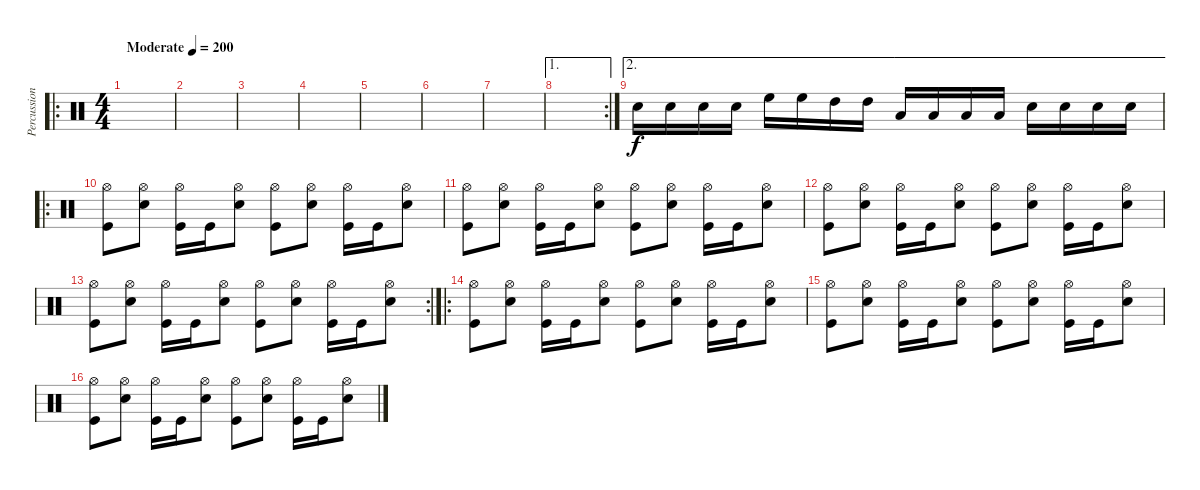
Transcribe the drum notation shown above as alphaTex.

\track ("Percussion" "Percussion") {instrument percussion}
\staff {score}
\articulation defaults
\ro
\ts (4 4)
\tempo (200 "Moderate")
\clef neutral
\ks c
|
|
|
|
|
|
|
\ae 1
\rc 2
|
\ae 2 "Snare (hit) 2".16 "Snare (hit) 2".16 "Snare (hit) 2".16 "Snare (hit) 2".16 "High Floor Tom (hit)".16 "High Floor Tom (hit)".16 "High Tom (hit)".16 "High Tom (hit)".16 "Low Tom (hit)".16 "Low Tom (hit)".16 "Low Floor Tom (hit)".16 "Low Floor Tom (hit)".16 "Snare (hit) 2".16 "Snare (hit) 2".16 "Snare (hit) 2".16 "Snare (hit) 2".16
|
\ro
("Hi-Hat (open)" "Kick (hit)").8 ("Hi-Hat (open)" "Snare (hit) 2").8 ("Hi-Hat (open)" "Kick (hit)").16 "Kick (hit)".16 ("Hi-Hat (open)" "Snare (hit) 2").8 ("Hi-Hat (open)" "Kick (hit)").8 ("Hi-Hat (open)" "Snare (hit) 2").8 ("Hi-Hat (open)" "Kick (hit)").16 "Kick (hit)".16 ("Hi-Hat (open)" "Snare (hit) 2").8 |
("Hi-Hat (open)" "Kick (hit)").8 ("Hi-Hat (open)" "Snare (hit) 2").8 ("Hi-Hat (open)" "Kick (hit)").16 "Kick (hit)".16 ("Hi-Hat (open)" "Snare (hit) 2").8 ("Hi-Hat (open)" "Kick (hit)").8 ("Hi-Hat (open)" "Snare (hit) 2").8 ("Hi-Hat (open)" "Kick (hit)").16 "Kick (hit)".16 ("Hi-Hat (open)" "Snare (hit) 2").8 |
("Hi-Hat (open)" "Kick (hit)").8 ("Hi-Hat (open)" "Snare (hit) 2").8 ("Hi-Hat (open)" "Kick (hit)").16 "Kick (hit)".16 ("Hi-Hat (open)" "Snare (hit) 2").8 ("Hi-Hat (open)" "Kick (hit)").8 ("Hi-Hat (open)" "Snare (hit) 2").8 ("Hi-Hat (open)" "Kick (hit)").16 "Kick (hit)".16 ("Hi-Hat (open)" "Snare (hit) 2").8 |
\rc 2
("Hi-Hat (open)" "Kick (hit)").8 ("Hi-Hat (open)" "Snare (hit) 2").8 ("Hi-Hat (open)" "Kick (hit)").16 "Kick (hit)".16 ("Hi-Hat (open)" "Snare (hit) 2").8 ("Hi-Hat (open)" "Kick (hit)").8 ("Hi-Hat (open)" "Snare (hit) 2").8 ("Hi-Hat (open)" "Kick (hit)").16 "Kick (hit)".16 ("Hi-Hat (open)" "Snare (hit) 2").8 |
\ro
("Hi-Hat (open)" "Kick (hit)").8 ("Hi-Hat (open)" "Snare (hit) 2").8 ("Hi-Hat (open)" "Kick (hit)").16 "Kick (hit)".16 ("Hi-Hat (open)" "Snare (hit) 2").8 ("Hi-Hat (open)" "Kick (hit)").8 ("Hi-Hat (open)" "Snare (hit) 2").8 ("Hi-Hat (open)" "Kick (hit)").16 "Kick (hit)".16 ("Hi-Hat (open)" "Snare (hit) 2").8 |
("Hi-Hat (open)" "Kick (hit)").8 ("Hi-Hat (open)" "Snare (hit) 2").8 ("Hi-Hat (open)" "Kick (hit)").16 "Kick (hit)".16 ("Hi-Hat (open)" "Snare (hit) 2").8 ("Hi-Hat (open)" "Kick (hit)").8 ("Hi-Hat (open)" "Snare (hit) 2").8 ("Hi-Hat (open)" "Kick (hit)").16 "Kick (hit)".16 ("Hi-Hat (open)" "Snare (hit) 2").8 |
("Hi-Hat (open)" "Kick (hit)").8 ("Hi-Hat (open)" "Snare (hit) 2").8 ("Hi-Hat (open)" "Kick (hit)").16 "Kick (hit)".16 ("Hi-Hat (open)" "Snare (hit) 2").8 ("Hi-Hat (open)" "Kick (hit)").8 ("Hi-Hat (open)" "Snare (hit) 2").8 ("Hi-Hat (open)" "Kick (hit)").16 "Kick (hit)".16 ("Hi-Hat (open)" "Snare (hit) 2").8
